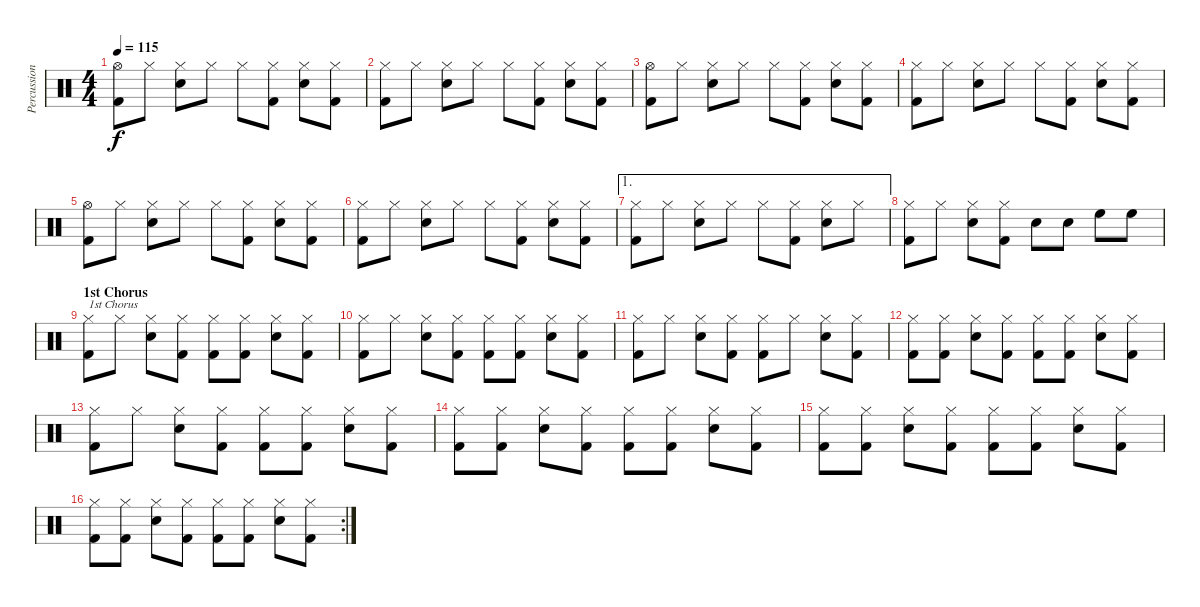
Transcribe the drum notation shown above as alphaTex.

\track ("Percussions" "Percussion") {instrument percussion}
\staff {score}
\articulation defaults
\ts (4 4)
\tempo 115
\clef neutral
\ks c
("Hi-Hat (open)" "Kick (hit) 2").8{dy f} "Hi-Hat (closed)".8 ("Hi-Hat (closed)" "Snare (hit) 2").8 "Hi-Hat (closed)".8 "Hi-Hat (closed)".8 ("Hi-Hat (closed)" "Kick (hit) 2").8 ("Hi-Hat (closed)" "Snare (hit) 2").8 ("Hi-Hat (closed)" "Kick (hit) 2").8 |
("Hi-Hat (closed)" "Kick (hit) 2").8 "Hi-Hat (closed)".8 ("Hi-Hat (closed)" "Snare (hit) 2").8 "Hi-Hat (closed)".8 "Hi-Hat (closed)".8 ("Hi-Hat (closed)" "Kick (hit) 2").8 ("Hi-Hat (closed)" "Snare (hit) 2").8 ("Hi-Hat (closed)" "Kick (hit) 2").8 |
("Hi-Hat (open)" "Kick (hit) 2").8 "Hi-Hat (closed)".8 ("Hi-Hat (closed)" "Snare (hit) 2").8 "Hi-Hat (closed)".8 "Hi-Hat (closed)".8 ("Hi-Hat (closed)" "Kick (hit) 2").8 ("Hi-Hat (closed)" "Snare (hit) 2").8 ("Hi-Hat (closed)" "Kick (hit) 2").8 |
("Hi-Hat (closed)" "Kick (hit) 2").8 "Hi-Hat (closed)".8 ("Hi-Hat (closed)" "Snare (hit) 2").8 "Hi-Hat (closed)".8 "Hi-Hat (closed)".8 ("Hi-Hat (closed)" "Kick (hit) 2").8 ("Hi-Hat (closed)" "Snare (hit) 2").8 ("Hi-Hat (closed)" "Kick (hit) 2").8 |
("Hi-Hat (open)" "Kick (hit) 2").8 "Hi-Hat (closed)".8 ("Hi-Hat (closed)" "Snare (hit) 2").8 "Hi-Hat (closed)".8 "Hi-Hat (closed)".8 ("Hi-Hat (closed)" "Kick (hit) 2").8 ("Hi-Hat (closed)" "Snare (hit) 2").8 ("Hi-Hat (closed)" "Kick (hit) 2").8 |
("Hi-Hat (closed)" "Kick (hit) 2").8 "Hi-Hat (closed)".8 ("Hi-Hat (closed)" "Snare (hit) 2").8 "Hi-Hat (closed)".8 "Hi-Hat (closed)".8 ("Hi-Hat (closed)" "Kick (hit) 2").8 ("Hi-Hat (closed)" "Snare (hit) 2").8 ("Hi-Hat (closed)" "Kick (hit) 2").8 |
\ae 1
("Hi-Hat (closed)" "Kick (hit) 2").8 "Hi-Hat (closed)".8 ("Hi-Hat (closed)" "Snare (hit) 2").8 "Hi-Hat (closed)".8 "Hi-Hat (closed)".8 ("Hi-Hat (closed)" "Kick (hit) 2").8 ("Hi-Hat (closed)" "Snare (hit) 2").8 "Hi-Hat (closed)".8 |
("Hi-Hat (closed)" "Kick (hit) 2").8 "Hi-Hat (closed)".8 ("Hi-Hat (closed)" "Snare (hit) 2").8 ("Hi-Hat (closed)" "Kick (hit) 2").8 "Snare (hit) 2".8 "Snare (hit) 2".8 "High Floor Tom (hit)".8 "High Floor Tom (hit)".8 |
\section ("" "1st Chorus")
("Hi-Hat (closed)" "Kick (hit) 2").8{txt "1st Chorus"} "Hi-Hat (closed)".8 ("Hi-Hat (closed)" "Snare (hit) 2").8 ("Hi-Hat (closed)" "Kick (hit) 2").8 ("Hi-Hat (closed)" "Kick (hit) 2").8 ("Hi-Hat (closed)" "Kick (hit) 2").8 ("Hi-Hat (closed)" "Snare (hit) 2").8 ("Hi-Hat (closed)" "Kick (hit) 2").8 |
("Hi-Hat (closed)" "Kick (hit) 2").8 "Hi-Hat (closed)".8 ("Hi-Hat (closed)" "Snare (hit) 2").8 ("Hi-Hat (closed)" "Kick (hit) 2").8 ("Hi-Hat (closed)" "Kick (hit) 2").8 ("Hi-Hat (closed)" "Kick (hit) 2").8 ("Hi-Hat (closed)" "Snare (hit) 2").8 ("Hi-Hat (closed)" "Kick (hit) 2").8 |
("Hi-Hat (closed)" "Kick (hit) 2").8 "Hi-Hat (closed)".8 ("Hi-Hat (closed)" "Snare (hit) 2").8 ("Hi-Hat (closed)" "Kick (hit) 2").8 ("Hi-Hat (closed)" "Kick (hit) 2").8 "Hi-Hat (closed)".8 ("Hi-Hat (closed)" "Snare (hit) 2").8 ("Hi-Hat (closed)" "Kick (hit) 2").8 |
("Hi-Hat (closed)" "Kick (hit) 2").8 ("Hi-Hat (closed)" "Kick (hit) 2").8 ("Hi-Hat (closed)" "Snare (hit) 2").8 ("Hi-Hat (closed)" "Kick (hit) 2").8 ("Hi-Hat (closed)" "Kick (hit) 2").8 ("Hi-Hat (closed)" "Kick (hit) 2").8 ("Hi-Hat (closed)" "Snare (hit) 2").8 ("Hi-Hat (closed)" "Kick (hit) 2").8 |
("Hi-Hat (closed)" "Kick (hit) 2").8 "Hi-Hat (closed)".8 ("Hi-Hat (closed)" "Snare (hit) 2").8 ("Hi-Hat (closed)" "Kick (hit) 2").8 ("Hi-Hat (closed)" "Kick (hit) 2").8 ("Hi-Hat (closed)" "Kick (hit) 2").8 ("Hi-Hat (closed)" "Snare (hit) 2").8 ("Hi-Hat (closed)" "Kick (hit) 2").8 |
("Hi-Hat (closed)" "Kick (hit) 2").8 ("Hi-Hat (closed)" "Kick (hit) 2").8 ("Hi-Hat (closed)" "Snare (hit) 2").8 ("Hi-Hat (closed)" "Kick (hit) 2").8 ("Hi-Hat (closed)" "Kick (hit) 2").8 ("Hi-Hat (closed)" "Kick (hit) 2").8 ("Hi-Hat (closed)" "Snare (hit) 2").8 ("Hi-Hat (closed)" "Kick (hit) 2").8 |
("Hi-Hat (closed)" "Kick (hit) 2").8 ("Hi-Hat (closed)" "Kick (hit) 2").8 ("Hi-Hat (closed)" "Snare (hit) 2").8 ("Hi-Hat (closed)" "Kick (hit) 2").8 ("Hi-Hat (closed)" "Kick (hit) 2").8 ("Hi-Hat (closed)" "Kick (hit) 2").8 ("Hi-Hat (closed)" "Snare (hit) 2").8 ("Hi-Hat (closed)" "Kick (hit) 2").8 |
\rc 2
("Hi-Hat (closed)" "Kick (hit) 2").8 ("Hi-Hat (closed)" "Kick (hit) 2").8 ("Hi-Hat (closed)" "Snare (hit) 2").8 ("Hi-Hat (closed)" "Kick (hit) 2").8 ("Hi-Hat (closed)" "Kick (hit) 2").8 ("Hi-Hat (closed)" "Kick (hit) 2").8 ("Hi-Hat (closed)" "Snare (hit) 2").8 ("Hi-Hat (closed)" "Kick (hit) 2").8
